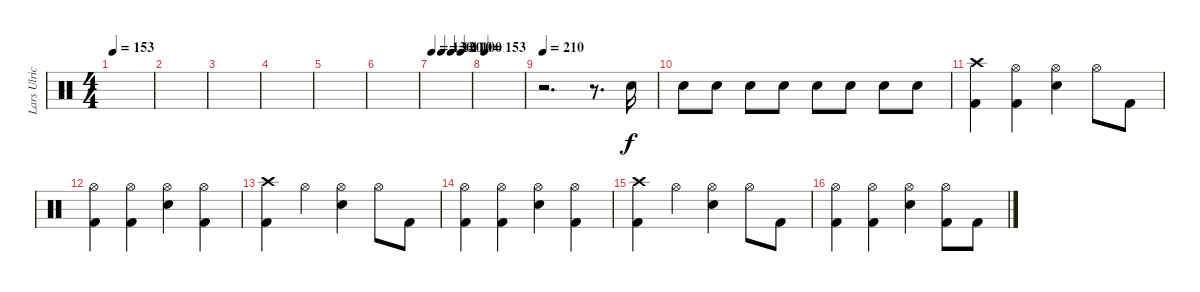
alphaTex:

\track ("Lars Ulrich" "Lars Ulric") {instrument percussion}
\staff {score}
\articulation defaults
\ts (4 4)
\tempo 153
\clef neutral
\ks c
|
|
|
|
|
|
\tempo 130
\tempo (120 0.25)
\tempo (110 0.5)
\tempo (100 0.75)
|
\tempo 153
|
\tempo 210
r.2{d} r.8{d} "Snare (hit) 2".16 |
"Snare (hit) 2".8 "Snare (hit) 2".8 "Snare (hit) 2".8 "Snare (hit) 2".8 "Snare (hit) 2".8 "Snare (hit) 2".8 "Snare (hit) 2".8 "Snare (hit) 2".8 |
("Kick (hit) 2" "Crash high (hit)").4 ("Kick (hit) 2" "Hi-Hat (open)").4 ("Snare (hit) 2" "Hi-Hat (open)").4 "Hi-Hat (open)".8 "Kick (hit) 2".8 |
("Kick (hit) 2" "Hi-Hat (open)").4 ("Kick (hit) 2" "Hi-Hat (open)").4 ("Snare (hit) 2" "Hi-Hat (open)").4 ("Kick (hit) 2" "Hi-Hat (open)").4 |
("Kick (hit) 2" "Crash high (hit)").4 "Hi-Hat (open)".4 ("Snare (hit) 2" "Hi-Hat (open)").4 "Hi-Hat (open)".8 "Kick (hit) 2".8 |
("Kick (hit) 2" "Hi-Hat (open)").4 ("Kick (hit) 2" "Hi-Hat (open)").4 ("Snare (hit) 2" "Hi-Hat (open)").4 ("Kick (hit) 2" "Hi-Hat (open)").4 |
("Kick (hit) 2" "Crash high (hit)").4 "Hi-Hat (open)".4 ("Snare (hit) 2" "Hi-Hat (open)").4 "Hi-Hat (open)".8 "Kick (hit) 2".8 |
("Kick (hit) 2" "Hi-Hat (open)").4 ("Kick (hit) 2" "Hi-Hat (open)").4 ("Snare (hit) 2" "Hi-Hat (open)").4 ("Kick (hit) 2" "Hi-Hat (open)").8 "Kick (hit) 2".8
